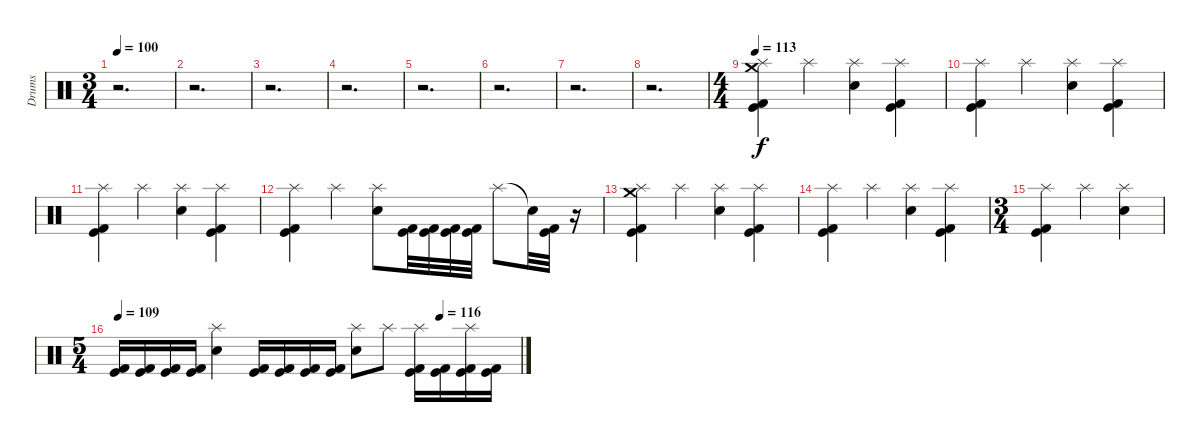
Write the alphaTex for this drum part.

\track ("Drums" "Drums") {instrument percussion}
\staff {score}
\articulation defaults
\ts (3 4)
\tempo 100
\clef neutral
\ks c
r.2{d dy f} |
r.2{d} |
r.2{d} |
r.2{d} |
r.2{d} |
r.2{d} |
r.2{d} |
r.2{d} |
\ts (4 4)
\tempo 113
("Kick (hit)" "Kick (hit) 2" "Crash medium (hit)" "Splash (hit)").4 "Splash (hit)".4 ("Electric Snare (hit)" "Splash (hit)").4 ("Kick (hit)" "Kick (hit) 2" "Splash (hit)").4 |
("Splash (hit)" "Kick (hit)" "Kick (hit) 2").4 "Splash (hit)".4 ("Electric Snare (hit)" "Splash (hit)").4 ("Kick (hit) 2" "Kick (hit)" "Splash (hit)").4 |
("Splash (hit)" "Kick (hit)" "Kick (hit) 2").4 "Splash (hit)".4 ("Electric Snare (hit)" "Splash (hit)").4 ("Kick (hit) 2" "Kick (hit)" "Splash (hit)").4 |
("Splash (hit)" "Kick (hit)" "Kick (hit) 2").4 "Splash (hit)".4 ("Electric Snare (hit)" "Splash (hit)").8 ("Kick (hit) 2" "Kick (hit)").32 ("Kick (hit)" "Kick (hit) 2").32 ("Kick (hit)" "Kick (hit) 2").32 ("Kick (hit)" "Kick (hit) 2").32 "Splash (hit)".8 "Snare (hit)"{t}.32 ("Kick (hit)" "Kick (hit) 2").32 r.16 |
("Kick (hit)" "Kick (hit) 2" "Crash medium (hit)" "Splash (hit)").4 "Splash (hit)".4 ("Electric Snare (hit)" "Splash (hit)").4 ("Kick (hit)" "Kick (hit) 2" "Splash (hit)").4 |
("Splash (hit)" "Kick (hit)" "Kick (hit) 2").4 "Splash (hit)".4 ("Electric Snare (hit)" "Splash (hit)").4 ("Kick (hit) 2" "Kick (hit)" "Splash (hit)").4 |
\ts (3 4)
("Splash (hit)" "Kick (hit)" "Kick (hit) 2").4 "Splash (hit)".4 ("Electric Snare (hit)" "Splash (hit)").4 |
\ts (5 4)
\tempo 109
\tempo (116 0.8)
("Kick (hit)" "Kick (hit) 2").16 ("Kick (hit)" "Kick (hit) 2").16 ("Kick (hit)" "Kick (hit) 2").16 ("Kick (hit)" "Kick (hit) 2").16 ("Splash (hit)" "Electric Snare (hit)").4 ("Kick (hit)" "Kick (hit) 2").16 ("Kick (hit)" "Kick (hit) 2").16 ("Kick (hit)" "Kick (hit) 2").16 ("Kick (hit)" "Kick (hit) 2").16 ("Splash (hit)" "Electric Snare (hit)").8 "Splash (hit)".8 ("Splash (hit)" "Kick (hit)" "Kick (hit) 2").16 ("Kick (hit)" "Kick (hit) 2").16 ("Splash (hit)" "Kick (hit)" "Kick (hit) 2").16 ("Kick (hit)" "Kick (hit) 2").16
